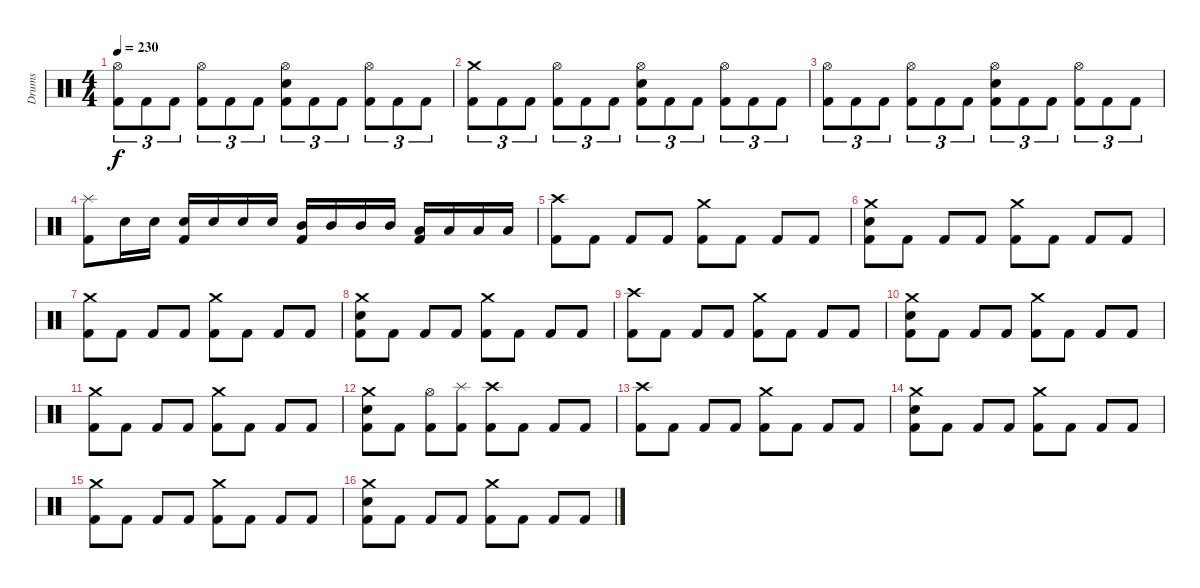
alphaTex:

\track ("Drums" "Drums") {instrument percussion}
\staff {score}
\articulation defaults
\ts (4 4)
\tempo 230
\clef neutral
\ks c
("Hi-Hat (open)" "Kick (hit) 2").8{tu (3 2) dy f} "Kick (hit) 2".8{tu (3 2)} "Kick (hit) 2".8{tu (3 2)} ("Hi-Hat (open)" "Kick (hit) 2").8{tu (3 2)} "Kick (hit) 2".8{tu (3 2)} "Kick (hit) 2".8{tu (3 2)} ("Hi-Hat (open)" "Electric Snare (hit)" "Kick (hit) 2").8{tu (3 2)} "Kick (hit) 2".8{tu (3 2)} "Kick (hit) 2".8{tu (3 2)} ("Hi-Hat (open)" "Kick (hit) 2").8{tu (3 2)} "Kick (hit) 2".8{tu (3 2)} "Kick (hit) 2".8{tu (3 2)} |
("Crash medium (hit)" "Kick (hit) 2").8{tu (3 2)} "Kick (hit) 2".8{tu (3 2)} "Kick (hit) 2".8{tu (3 2)} ("Hi-Hat (open)" "Kick (hit) 2").8{tu (3 2)} "Kick (hit) 2".8{tu (3 2)} "Kick (hit) 2".8{tu (3 2)} ("Hi-Hat (open)" "Electric Snare (hit)" "Kick (hit) 2").8{tu (3 2)} "Kick (hit) 2".8{tu (3 2)} "Kick (hit) 2".8{tu (3 2)} ("Hi-Hat (open)" "Kick (hit) 2").8{tu (3 2)} "Kick (hit) 2".8{tu (3 2)} "Kick (hit) 2".8{tu (3 2)} |
("Hi-Hat (open)" "Kick (hit) 2").8{tu (3 2)} "Kick (hit) 2".8{tu (3 2)} "Kick (hit) 2".8{tu (3 2)} ("Hi-Hat (open)" "Kick (hit) 2").8{tu (3 2)} "Kick (hit) 2".8{tu (3 2)} "Kick (hit) 2".8{tu (3 2)} ("Hi-Hat (open)" "Electric Snare (hit)" "Kick (hit) 2").8{tu (3 2)} "Kick (hit) 2".8{tu (3 2)} "Kick (hit) 2".8{tu (3 2)} ("Hi-Hat (open)" "Kick (hit) 2").8{tu (3 2)} "Kick (hit) 2".8{tu (3 2)} "Kick (hit) 2".8{tu (3 2)} |
("Splash (hit)" "Kick (hit) 2").8 "Electric Snare (hit)".16 "Electric Snare (hit)".16 ("Electric Snare (hit)" "Kick (hit) 2").16 "Electric Snare (hit)".16 "Electric Snare (hit)".16 "Electric Snare (hit)".16 ("Mid Tom (hit)" "Kick (hit) 2").16 "Mid Tom (hit)".16 "Mid Tom (hit)".16 "Mid Tom (hit)".16 ("Low Tom (hit)" "Kick (hit) 2").16 "Low Tom (hit)".16 "Low Tom (hit)".16 "Low Tom (hit)".16 |
("Crash high (hit)" "Kick (hit) 2").8 "Kick (hit) 2".8 "Kick (hit) 2".8 "Kick (hit) 2".8 ("Crash medium (hit)" "Kick (hit) 2").8 "Kick (hit) 2".8 "Kick (hit) 2".8 "Kick (hit) 2".8 |
("Crash medium (hit)" "Electric Snare (hit)" "Kick (hit) 2").8 "Kick (hit) 2".8 "Kick (hit) 2".8 "Kick (hit) 2".8 ("Crash medium (hit)" "Kick (hit) 2").8 "Kick (hit) 2".8 "Kick (hit) 2".8 "Kick (hit) 2".8 |
("Crash medium (hit)" "Kick (hit) 2").8 "Kick (hit) 2".8 "Kick (hit) 2".8 "Kick (hit) 2".8 ("Crash medium (hit)" "Kick (hit) 2").8 "Kick (hit) 2".8 "Kick (hit) 2".8 "Kick (hit) 2".8 |
("Crash medium (hit)" "Electric Snare (hit)" "Kick (hit) 2").8 "Kick (hit) 2".8 "Kick (hit) 2".8 "Kick (hit) 2".8 ("Crash medium (hit)" "Kick (hit) 2").8 "Kick (hit) 2".8 "Kick (hit) 2".8 "Kick (hit) 2".8 |
("Crash high (hit)" "Kick (hit) 2").8 "Kick (hit) 2".8 "Kick (hit) 2".8 "Kick (hit) 2".8 ("Crash medium (hit)" "Kick (hit) 2").8 "Kick (hit) 2".8 "Kick (hit) 2".8 "Kick (hit) 2".8 |
("Crash medium (hit)" "Electric Snare (hit)" "Kick (hit) 2").8 "Kick (hit) 2".8 "Kick (hit) 2".8 "Kick (hit) 2".8 ("Crash medium (hit)" "Kick (hit) 2").8 "Kick (hit) 2".8 "Kick (hit) 2".8 "Kick (hit) 2".8 |
("Crash medium (hit)" "Kick (hit) 2").8 "Kick (hit) 2".8 "Kick (hit) 2".8 "Kick (hit) 2".8 ("Crash medium (hit)" "Kick (hit) 2").8 "Kick (hit) 2".8 "Kick (hit) 2".8 "Kick (hit) 2".8 |
("Crash medium (hit)" "Electric Snare (hit)" "Kick (hit) 2").8 "Kick (hit) 2".8 ("Hi-Hat (open)" "Kick (hit) 2").8 ("Splash (hit)" "Kick (hit) 2").8 ("Crash high (hit)" "Kick (hit) 2").8 "Kick (hit) 2".8 "Kick (hit) 2".8 "Kick (hit) 2".8 |
("Crash high (hit)" "Kick (hit) 2").8 "Kick (hit) 2".8 "Kick (hit) 2".8 "Kick (hit) 2".8 ("Crash medium (hit)" "Kick (hit) 2").8 "Kick (hit) 2".8 "Kick (hit) 2".8 "Kick (hit) 2".8 |
("Crash medium (hit)" "Electric Snare (hit)" "Kick (hit) 2").8 "Kick (hit) 2".8 "Kick (hit) 2".8 "Kick (hit) 2".8 ("Crash medium (hit)" "Kick (hit) 2").8 "Kick (hit) 2".8 "Kick (hit) 2".8 "Kick (hit) 2".8 |
("Crash medium (hit)" "Kick (hit) 2").8 "Kick (hit) 2".8 "Kick (hit) 2".8 "Kick (hit) 2".8 ("Crash medium (hit)" "Kick (hit) 2").8 "Kick (hit) 2".8 "Kick (hit) 2".8 "Kick (hit) 2".8 |
("Crash medium (hit)" "Electric Snare (hit)" "Kick (hit) 2").8 "Kick (hit) 2".8 "Kick (hit) 2".8 "Kick (hit) 2".8 ("Crash medium (hit)" "Kick (hit) 2").8 "Kick (hit) 2".8 "Kick (hit) 2".8 "Kick (hit) 2".8
